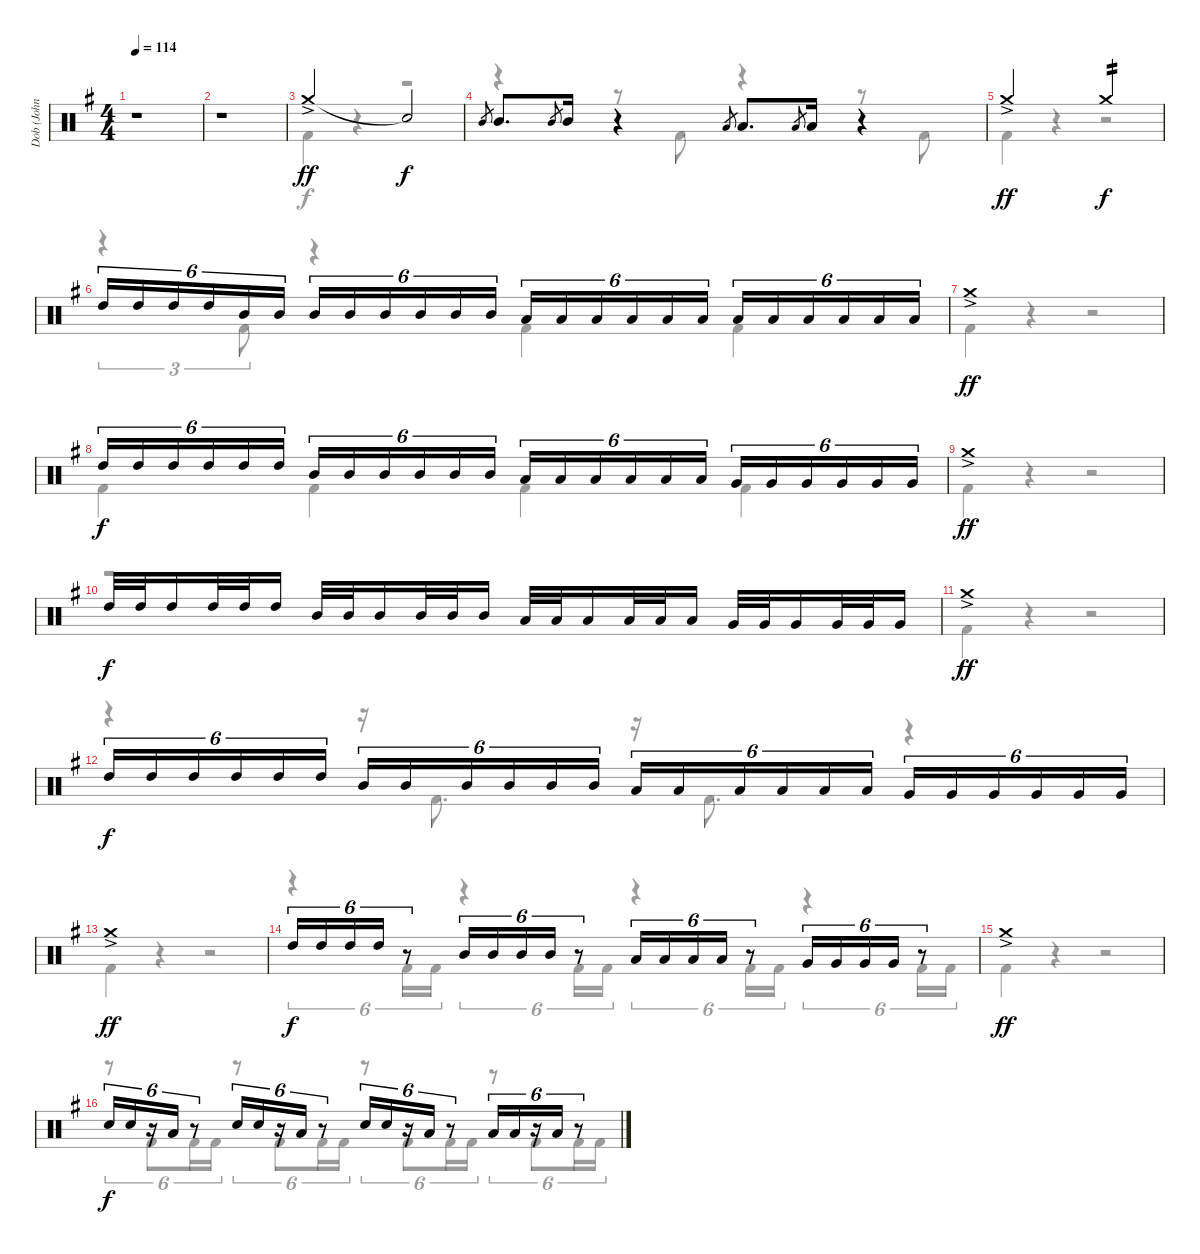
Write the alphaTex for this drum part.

\track ("Dob (John Macaluso)" "Dob (John ") {instrument percussion}
\staff {score}
\articulation defaults
\voice
\ts (4 4)
\tempo 114
\clef neutral
\ks g
r.1{dy ff} |
r.1 |
"Crash medium (hit)"{ac}.2 "Snare (hit)"{t}.2{dy f} |
"Mid Tom (hit)".8{gr} "Mid Tom (hit)".8{d} "Mid Tom (hit)".8{gr} "Mid Tom (hit)".16 r.4 "Low Tom (hit)".8{gr} "Low Tom (hit)".8{d} "Low Tom (hit)".8{gr} "Low Tom (hit)".16 r.4 |
"Crash medium (hit)"{ac}.2{dy ff} "Crash medium (hit)".2{tp 2 dy f} |
"High Tom (hit)".16{tu (6 4)} "High Tom (hit)".16{tu (6 4)} "High Tom (hit)".16{tu (6 4)} "High Tom (hit)".16{tu (6 4)} "Mid Tom (hit)".16{tu (6 4)} "Mid Tom (hit)".16{tu (6 4)} "Mid Tom (hit)".16{tu (6 4)} "Mid Tom (hit)".16{tu (6 4)} "Mid Tom (hit)".16{tu (6 4)} "Mid Tom (hit)".16{tu (6 4)} "Mid Tom (hit)".16{tu (6 4)} "Mid Tom (hit)".16{tu (6 4)} "Low Tom (hit)".16{tu (6 4)} "Low Tom (hit)".16{tu (6 4)} "Low Tom (hit)".16{tu (6 4)} "Low Tom (hit)".16{tu (6 4)} "Low Tom (hit)".16{tu (6 4)} "Low Tom (hit)".16{tu (6 4)} "Low Tom (hit)".16{tu (6 4)} "Low Tom (hit)".16{tu (6 4)} "Low Tom (hit)".16{tu (6 4)} "Low Tom (hit)".16{tu (6 4)} "Low Tom (hit)".16{tu (6 4)} "Low Tom (hit)".16{tu (6 4)} |
"Crash medium (hit)"{ac}.1{dy ff} |
"High Tom (hit)".16{tu (6 4) dy f} "High Tom (hit)".16{tu (6 4)} "High Tom (hit)".16{tu (6 4)} "High Tom (hit)".16{tu (6 4)} "High Tom (hit)".16{tu (6 4)} "High Tom (hit)".16{tu (6 4)} "Mid Tom (hit)".16{tu (6 4)} "Mid Tom (hit)".16{tu (6 4)} "Mid Tom (hit)".16{tu (6 4)} "Mid Tom (hit)".16{tu (6 4)} "Mid Tom (hit)".16{tu (6 4)} "Mid Tom (hit)".16{tu (6 4)} "Low Tom (hit)".16{tu (6 4)} "Low Tom (hit)".16{tu (6 4)} "Low Tom (hit)".16{tu (6 4)} "Low Tom (hit)".16{tu (6 4)} "Low Tom (hit)".16{tu (6 4)} "Low Tom (hit)".16{tu (6 4)} "Very Low Tom (hit)".16{tu (6 4)} "Very Low Tom (hit)".16{tu (6 4)} "Very Low Tom (hit)".16{tu (6 4)} "Very Low Tom (hit)".16{tu (6 4)} "Very Low Tom (hit)".16{tu (6 4)} "Very Low Tom (hit)".16{tu (6 4)} |
"Crash medium (hit)"{ac}.1{dy ff} |
"High Tom (hit)".32{dy f} "High Tom (hit)".32 "High Tom (hit)".16 "High Tom (hit)".32 "High Tom (hit)".32 "High Tom (hit)".16 "Mid Tom (hit)".32 "Mid Tom (hit)".32 "Mid Tom (hit)".16 "Mid Tom (hit)".32 "Mid Tom (hit)".32 "Mid Tom (hit)".16 "Low Tom (hit)".32 "Low Tom (hit)".32 "Low Tom (hit)".16 "Low Tom (hit)".32 "Low Tom (hit)".32 "Low Tom (hit)".16 "Very Low Tom (hit)".32 "Very Low Tom (hit)".32 "Very Low Tom (hit)".16 "Very Low Tom (hit)".32 "Very Low Tom (hit)".32 "Very Low Tom (hit)".16 |
"Crash medium (hit)"{ac}.1{dy ff} |
"High Tom (hit)".16{tu (6 4) dy f} "High Tom (hit)".16{tu (6 4)} "High Tom (hit)".16{tu (6 4)} "High Tom (hit)".16{tu (6 4)} "High Tom (hit)".16{tu (6 4)} "High Tom (hit)".16{tu (6 4)} "Mid Tom (hit)".16{tu (6 4)} "Mid Tom (hit)".16{tu (6 4)} "Mid Tom (hit)".16{tu (6 4)} "Mid Tom (hit)".16{tu (6 4)} "Mid Tom (hit)".16{tu (6 4)} "Mid Tom (hit)".16{tu (6 4)} "Low Tom (hit)".16{tu (6 4)} "Low Tom (hit)".16{tu (6 4)} "Low Tom (hit)".16{tu (6 4)} "Low Tom (hit)".16{tu (6 4)} "Low Tom (hit)".16{tu (6 4)} "Low Tom (hit)".16{tu (6 4)} "Very Low Tom (hit)".16{tu (6 4)} "Very Low Tom (hit)".16{tu (6 4)} "Very Low Tom (hit)".16{tu (6 4)} "Very Low Tom (hit)".16{tu (6 4)} "Very Low Tom (hit)".16{tu (6 4)} "Very Low Tom (hit)".16{tu (6 4)} |
"Crash medium (hit)"{ac}.1{dy ff} |
"High Tom (hit)".16{tu (6 4) dy f} "High Tom (hit)".16{tu (6 4)} "High Tom (hit)".16{tu (6 4)} "High Tom (hit)".16{tu (6 4)} r.8{tu (6 4)} "Mid Tom (hit)".16{tu (6 4)} "Mid Tom (hit)".16{tu (6 4)} "Mid Tom (hit)".16{tu (6 4)} "Mid Tom (hit)".16{tu (6 4)} r.8{tu (6 4)} "Low Tom (hit)".16{tu (6 4)} "Low Tom (hit)".16{tu (6 4)} "Low Tom (hit)".16{tu (6 4)} "Low Tom (hit)".16{tu (6 4)} r.8{tu (6 4)} "Very Low Tom (hit)".16{tu (6 4)} "Very Low Tom (hit)".16{tu (6 4)} "Very Low Tom (hit)".16{tu (6 4)} "Very Low Tom (hit)".16{tu (6 4)} r.8{tu (6 4)} |
"Crash medium (hit)"{ac}.1{dy ff} |
"Electric Snare (hit)".16{tu (6 4) dy f} "Electric Snare (hit)".16{tu (6 4)} r.16{tu (6 4)} "Low Tom (hit)".16{tu (6 4)} r.8{tu (6 4)} "Electric Snare (hit)".16{tu (6 4)} "Electric Snare (hit)".16{tu (6 4)} r.16{tu (6 4)} "Low Tom (hit)".16{tu (6 4)} r.8{tu (6 4)} "Electric Snare (hit)".16{tu (6 4)} "Electric Snare (hit)".16{tu (6 4)} r.16{tu (6 4)} "Low Tom (hit)".16{tu (6 4)} r.8{tu (6 4)} "Low Tom (hit)".16{tu (6 4)} "Low Tom (hit)".16{tu (6 4)} r.16{tu (6 4)} "Low Tom (hit)".16{tu (6 4)} r.8{tu (6 4)}
\voice
\clef neutral
\ottava regular
\simile none
\ks g
r.1{dy f} |
r.1 |
"Kick (hit) 2".4 r.4 r.2 |
r.4 r.8 "Kick (hit) 2".8 r.4 r.8 "Kick (hit) 2".8 |
"Kick (hit) 2".4 r.4 r.2 |
r.4{tu (3 2)} "Kick (hit) 2".8{tu (3 2)} r.4 "Kick (hit) 2".4 "Kick (hit) 2".4 |
"Kick (hit) 2".4 r.4 r.2 |
"Kick (hit) 2".4 "Kick (hit) 2".4 "Kick (hit) 2".4 "Kick (hit) 2".4 |
"Kick (hit) 2".4 r.4 r.2 |
r.1 |
"Kick (hit) 2".4 r.4 r.2 |
r.4 r.16 "Kick (hit) 2".8{d} r.16 "Kick (hit) 2".8{d} r.4 |
"Kick (hit) 2".4 r.4 r.2 |
r.4{tu (6 4)} "Kick (hit) 2".16{tu (6 4)} "Kick (hit) 2".16{tu (6 4)} r.4{tu (6 4)} "Kick (hit) 2".16{tu (6 4)} "Kick (hit) 2".16{tu (6 4)} r.4{tu (6 4)} "Kick (hit) 2".16{tu (6 4)} "Kick (hit) 2".16{tu (6 4)} r.4{tu (6 4)} "Kick (hit) 2".16{tu (6 4)} "Kick (hit) 2".16{tu (6 4)} |
"Kick (hit) 2".4 r.4 r.2 |
r.8{tu (6 4)} "Kick (hit) 2".8{tu (6 4)} "Kick (hit) 2".16{tu (6 4)} "Kick (hit) 2".16{tu (6 4)} r.8{tu (6 4)} "Kick (hit) 2".8{tu (6 4)} "Kick (hit) 2".16{tu (6 4)} "Kick (hit) 2".16{tu (6 4)} r.8{tu (6 4)} "Kick (hit) 2".8{tu (6 4)} "Kick (hit) 2".16{tu (6 4)} "Kick (hit) 2".16{tu (6 4)} r.8{tu (6 4)} "Kick (hit) 2".8{tu (6 4)} "Kick (hit) 2".16{tu (6 4)} "Kick (hit) 2".16{tu (6 4)}
